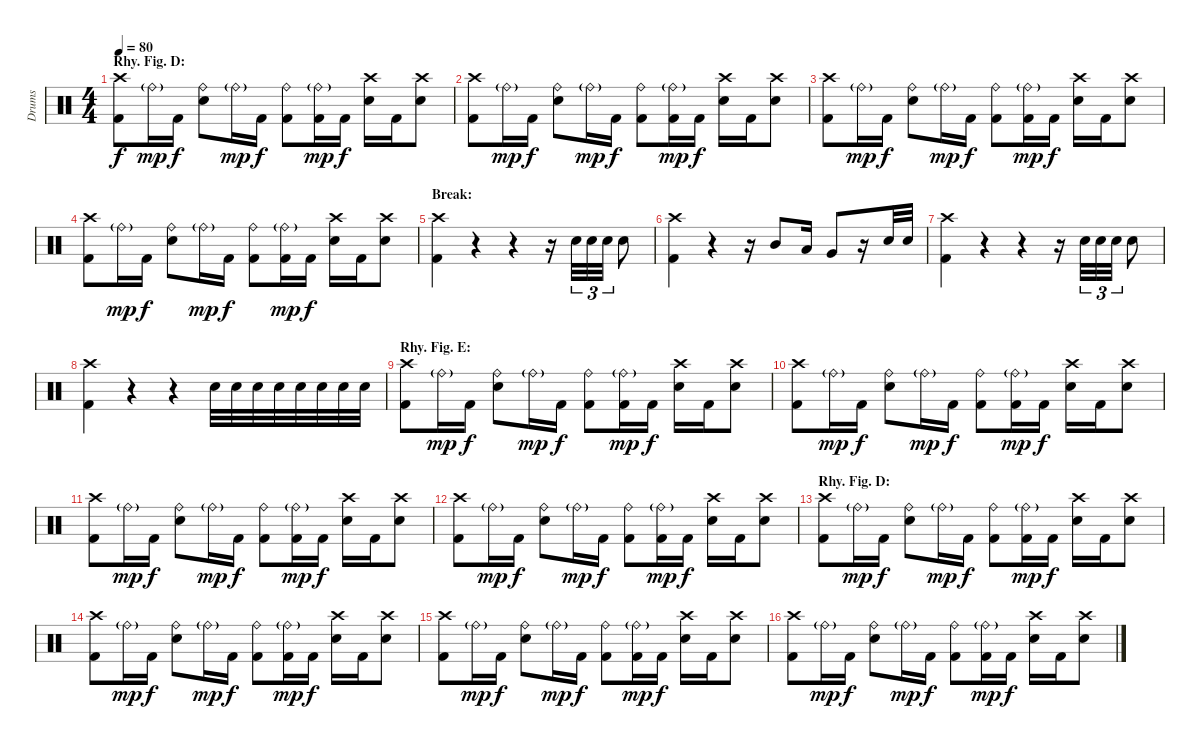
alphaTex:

\track ("Drums" "Drums") {instrument percussion}
\staff {score}
\articulation defaults
\ts (4 4)
\section ("" "Rhy. Fig. D:")
\tempo 80
\clef neutral
\ks c
("Crash high (hit)" "Kick (hit) 2").8{dy f} "Ride (bell)"{g}.16{dy mp} "Kick (hit) 2".16{dy f} ("Ride (bell)" "Electric Snare (hit)").8 "Ride (bell)"{g}.16{dy mp} "Kick (hit) 2".16{dy f} ("Ride (bell)" "Kick (hit) 2").8 ("Ride (bell)"{g} "Kick (hit) 2").16{dy mp} "Kick (hit) 2".16{dy f} ("Crash high (hit)" "Electric Snare (hit)").16 "Kick (hit) 2".16 ("Crash high (hit)" "Electric Snare (hit)").8 |
("Crash high (hit)" "Kick (hit) 2").8 "Ride (bell)"{g}.16{dy mp} "Kick (hit) 2".16{dy f} ("Ride (bell)" "Electric Snare (hit)").8 "Ride (bell)"{g}.16{dy mp} "Kick (hit) 2".16{dy f} ("Ride (bell)" "Kick (hit) 2").8 ("Ride (bell)"{g} "Kick (hit) 2").16{dy mp} "Kick (hit) 2".16{dy f} ("Crash high (hit)" "Electric Snare (hit)").16 "Kick (hit) 2".16 ("Crash high (hit)" "Electric Snare (hit)").8 |
("Crash high (hit)" "Kick (hit) 2").8 "Ride (bell)"{g}.16{dy mp} "Kick (hit) 2".16{dy f} ("Ride (bell)" "Electric Snare (hit)").8 "Ride (bell)"{g}.16{dy mp} "Kick (hit) 2".16{dy f} ("Ride (bell)" "Kick (hit) 2").8 ("Ride (bell)"{g} "Kick (hit) 2").16{dy mp} "Kick (hit) 2".16{dy f} ("Crash high (hit)" "Electric Snare (hit)").16 "Kick (hit) 2".16 ("Crash high (hit)" "Electric Snare (hit)").8 |
("Crash high (hit)" "Kick (hit) 2").8 "Ride (bell)"{g}.16{dy mp} "Kick (hit) 2".16{dy f} ("Ride (bell)" "Electric Snare (hit)").8 "Ride (bell)"{g}.16{dy mp} "Kick (hit) 2".16{dy f} ("Ride (bell)" "Kick (hit) 2").8 ("Ride (bell)"{g} "Kick (hit) 2").16{dy mp} "Kick (hit) 2".16{dy f} ("Crash high (hit)" "Electric Snare (hit)").16 "Kick (hit) 2".16 ("Crash high (hit)" "Electric Snare (hit)").8 |
\section ("" "Break:")
("Crash high (hit)" "Kick (hit) 2").4 r.4 r.4 r.16 "Electric Snare (hit)".32{tu (3 2)} "Electric Snare (hit)".32{tu (3 2)} "Electric Snare (hit)".32{tu (3 2)} "Electric Snare (hit)".8 |
("Crash high (hit)" "Kick (hit) 2").4 r.4 r.16 "Mid Tom (hit)".8 "Low Tom (hit)".16 "Very Low Tom (hit)".8 r.16 "Electric Snare (hit)".32 "Electric Snare (hit)".32 |
("Crash high (hit)" "Kick (hit) 2").4 r.4 r.4 r.16 "Electric Snare (hit)".32{tu (3 2)} "Electric Snare (hit)".32{tu (3 2)} "Electric Snare (hit)".32{tu (3 2)} "Electric Snare (hit)".8 |
("Crash high (hit)" "Kick (hit) 2").4 r.4 r.4 "Electric Snare (hit)".32 "Electric Snare (hit)".32 "Electric Snare (hit)".32 "Electric Snare (hit)".32 "Electric Snare (hit)".32 "Electric Snare (hit)".32 "Electric Snare (hit)".32 "Electric Snare (hit)".32 |
\section ("" "Rhy. Fig. E:")
("Crash high (hit)" "Kick (hit) 2").8 "Ride (bell)"{g}.16{dy mp} "Kick (hit) 2".16{dy f} ("Ride (bell)" "Electric Snare (hit)").8 "Ride (bell)"{g}.16{dy mp} "Kick (hit) 2".16{dy f} ("Ride (bell)" "Kick (hit) 2").8 ("Ride (bell)"{g} "Kick (hit) 2").16{dy mp} "Kick (hit) 2".16{dy f} ("Crash high (hit)" "Electric Snare (hit)").16 "Kick (hit) 2".16 ("Crash high (hit)" "Electric Snare (hit)").8 |
("Crash high (hit)" "Kick (hit) 2").8 "Ride (bell)"{g}.16{dy mp} "Kick (hit) 2".16{dy f} ("Ride (bell)" "Electric Snare (hit)").8 "Ride (bell)"{g}.16{dy mp} "Kick (hit) 2".16{dy f} ("Ride (bell)" "Kick (hit) 2").8 ("Ride (bell)"{g} "Kick (hit) 2").16{dy mp} "Kick (hit) 2".16{dy f} ("Crash high (hit)" "Electric Snare (hit)").16 "Kick (hit) 2".16 ("Crash high (hit)" "Electric Snare (hit)").8 |
("Crash high (hit)" "Kick (hit) 2").8 "Ride (bell)"{g}.16{dy mp} "Kick (hit) 2".16{dy f} ("Ride (bell)" "Electric Snare (hit)").8 "Ride (bell)"{g}.16{dy mp} "Kick (hit) 2".16{dy f} ("Ride (bell)" "Kick (hit) 2").8 ("Ride (bell)"{g} "Kick (hit) 2").16{dy mp} "Kick (hit) 2".16{dy f} ("Crash high (hit)" "Electric Snare (hit)").16 "Kick (hit) 2".16 ("Crash high (hit)" "Electric Snare (hit)").8 |
("Crash high (hit)" "Kick (hit) 2").8 "Ride (bell)"{g}.16{dy mp} "Kick (hit) 2".16{dy f} ("Ride (bell)" "Electric Snare (hit)").8 "Ride (bell)"{g}.16{dy mp} "Kick (hit) 2".16{dy f} ("Ride (bell)" "Kick (hit) 2").8 ("Ride (bell)"{g} "Kick (hit) 2").16{dy mp} "Kick (hit) 2".16{dy f} ("Crash high (hit)" "Electric Snare (hit)").16 "Kick (hit) 2".16 ("Crash high (hit)" "Electric Snare (hit)").8 |
\section ("" "Rhy. Fig. D:")
("Crash high (hit)" "Kick (hit) 2").8 "Ride (bell)"{g}.16{dy mp} "Kick (hit) 2".16{dy f} ("Ride (bell)" "Electric Snare (hit)").8 "Ride (bell)"{g}.16{dy mp} "Kick (hit) 2".16{dy f} ("Ride (bell)" "Kick (hit) 2").8 ("Ride (bell)"{g} "Kick (hit) 2").16{dy mp} "Kick (hit) 2".16{dy f} ("Crash high (hit)" "Electric Snare (hit)").16 "Kick (hit) 2".16 ("Crash high (hit)" "Electric Snare (hit)").8 |
("Crash high (hit)" "Kick (hit) 2").8 "Ride (bell)"{g}.16{dy mp} "Kick (hit) 2".16{dy f} ("Ride (bell)" "Electric Snare (hit)").8 "Ride (bell)"{g}.16{dy mp} "Kick (hit) 2".16{dy f} ("Ride (bell)" "Kick (hit) 2").8 ("Ride (bell)"{g} "Kick (hit) 2").16{dy mp} "Kick (hit) 2".16{dy f} ("Crash high (hit)" "Electric Snare (hit)").16 "Kick (hit) 2".16 ("Crash high (hit)" "Electric Snare (hit)").8 |
("Crash high (hit)" "Kick (hit) 2").8 "Ride (bell)"{g}.16{dy mp} "Kick (hit) 2".16{dy f} ("Ride (bell)" "Electric Snare (hit)").8 "Ride (bell)"{g}.16{dy mp} "Kick (hit) 2".16{dy f} ("Ride (bell)" "Kick (hit) 2").8 ("Ride (bell)"{g} "Kick (hit) 2").16{dy mp} "Kick (hit) 2".16{dy f} ("Crash high (hit)" "Electric Snare (hit)").16 "Kick (hit) 2".16 ("Crash high (hit)" "Electric Snare (hit)").8 |
("Crash high (hit)" "Kick (hit) 2").8 "Ride (bell)"{g}.16{dy mp} "Kick (hit) 2".16{dy f} ("Ride (bell)" "Electric Snare (hit)").8 "Ride (bell)"{g}.16{dy mp} "Kick (hit) 2".16{dy f} ("Ride (bell)" "Kick (hit) 2").8 ("Ride (bell)"{g} "Kick (hit) 2").16{dy mp} "Kick (hit) 2".16{dy f} ("Crash high (hit)" "Electric Snare (hit)").16 "Kick (hit) 2".16 ("Crash high (hit)" "Electric Snare (hit)").8
